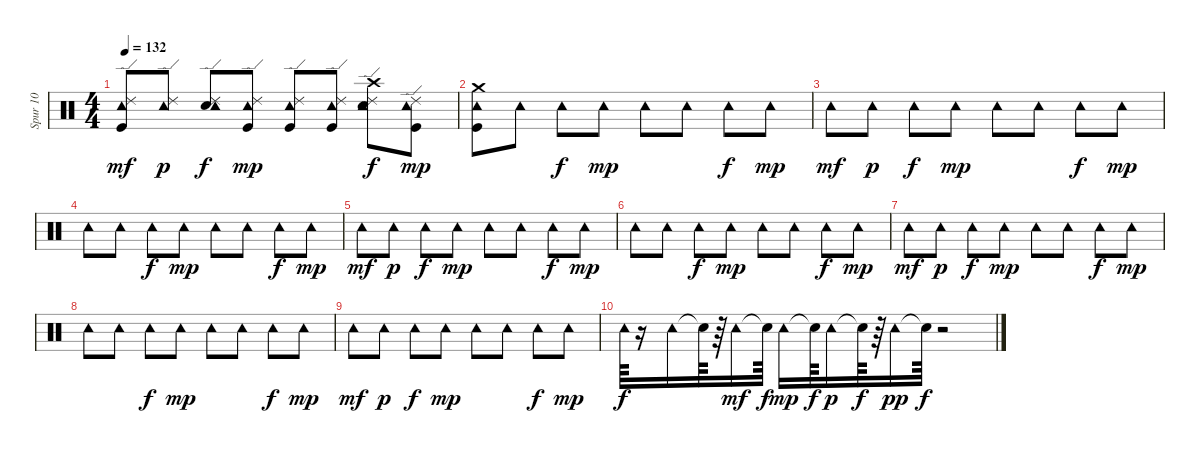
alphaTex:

\track ("Spur 10" "Spur 10") {instrument percussion}
\staff {score}
\articulation defaults
\ts (4 4)
\tempo 132
\clef neutral
\ks c
("Kick (hit)" "Ride (edge) 2" "Tambourine (hit)").8{dy mf} ("Ride (edge) 2" "Tambourine (hit)").8{dy p} ("Electric Snare (hit)" "Ride (edge) 2" "Tambourine (hit)").8{dy f} ("Kick (hit)" "Ride (edge) 2" "Tambourine (hit)").8{dy mp} ("Kick (hit)" "Ride (edge) 2" "Tambourine (hit)").8 ("Ride (edge) 2" "Kick (hit)" "Tambourine (hit)").8 ("Electric Snare (hit)" "Ride (edge) 2" "Crash high (hit)" "Tambourine (hit)").8{dy f} ("Ride (edge) 2" "Kick (hit)" "Tambourine (hit)").8{dy mp} |
("Crash medium (hit)" "Kick (hit)" "Tambourine (hit)").8 "Tambourine (hit)".8 "Tambourine (hit)".8{dy f} "Tambourine (hit)".8{dy mp} "Tambourine (hit)".8 "Tambourine (hit)".8 "Tambourine (hit)".8{dy f} "Tambourine (hit)".8{dy mp} |
"Tambourine (hit)".8{dy mf} "Tambourine (hit)".8{dy p} "Tambourine (hit)".8{dy f} "Tambourine (hit)".8{dy mp} "Tambourine (hit)".8 "Tambourine (hit)".8 "Tambourine (hit)".8{dy f} "Tambourine (hit)".8{dy mp} |
"Tambourine (hit)".8 "Tambourine (hit)".8 "Tambourine (hit)".8{dy f} "Tambourine (hit)".8{dy mp} "Tambourine (hit)".8 "Tambourine (hit)".8 "Tambourine (hit)".8{dy f} "Tambourine (hit)".8{dy mp} |
"Tambourine (hit)".8{dy mf} "Tambourine (hit)".8{dy p} "Tambourine (hit)".8{dy f} "Tambourine (hit)".8{dy mp} "Tambourine (hit)".8 "Tambourine (hit)".8 "Tambourine (hit)".8{dy f} "Tambourine (hit)".8{dy mp} |
"Tambourine (hit)".8 "Tambourine (hit)".8 "Tambourine (hit)".8{dy f} "Tambourine (hit)".8{dy mp} "Tambourine (hit)".8 "Tambourine (hit)".8 "Tambourine (hit)".8{dy f} "Tambourine (hit)".8{dy mp} |
"Tambourine (hit)".8{dy mf} "Tambourine (hit)".8{dy p} "Tambourine (hit)".8{dy f} "Tambourine (hit)".8{dy mp} "Tambourine (hit)".8 "Tambourine (hit)".8 "Tambourine (hit)".8{dy f} "Tambourine (hit)".8{dy mp} |
"Tambourine (hit)".8 "Tambourine (hit)".8 "Tambourine (hit)".8{dy f} "Tambourine (hit)".8{dy mp} "Tambourine (hit)".8 "Tambourine (hit)".8 "Tambourine (hit)".8{dy f} "Tambourine (hit)".8{dy mp} |
"Tambourine (hit)".8{dy mf} "Tambourine (hit)".8{dy p} "Tambourine (hit)".8{dy f} "Tambourine (hit)".8{dy mp} "Tambourine (hit)".8 "Tambourine (hit)".8 "Tambourine (hit)".8{dy f} "Tambourine (hit)".8{dy mp} |
"Tambourine (hit)".64{dy f} r.16 "Tambourine (hit)".16 "Snare (hit)"{t}.64 r.64 "Tambourine (hit)".16{dy mf} "Snare (hit)"{t}.64{dy f} "Tambourine (hit)".16{dy mp} "Snare (hit)"{t}.64{dy f} "Tambourine (hit)".16{dy p} "Snare (hit)"{t}.64{dy f} r.64 "Tambourine (hit)".16{dy pp} "Snare (hit)"{t}.64{dy f} r.2
